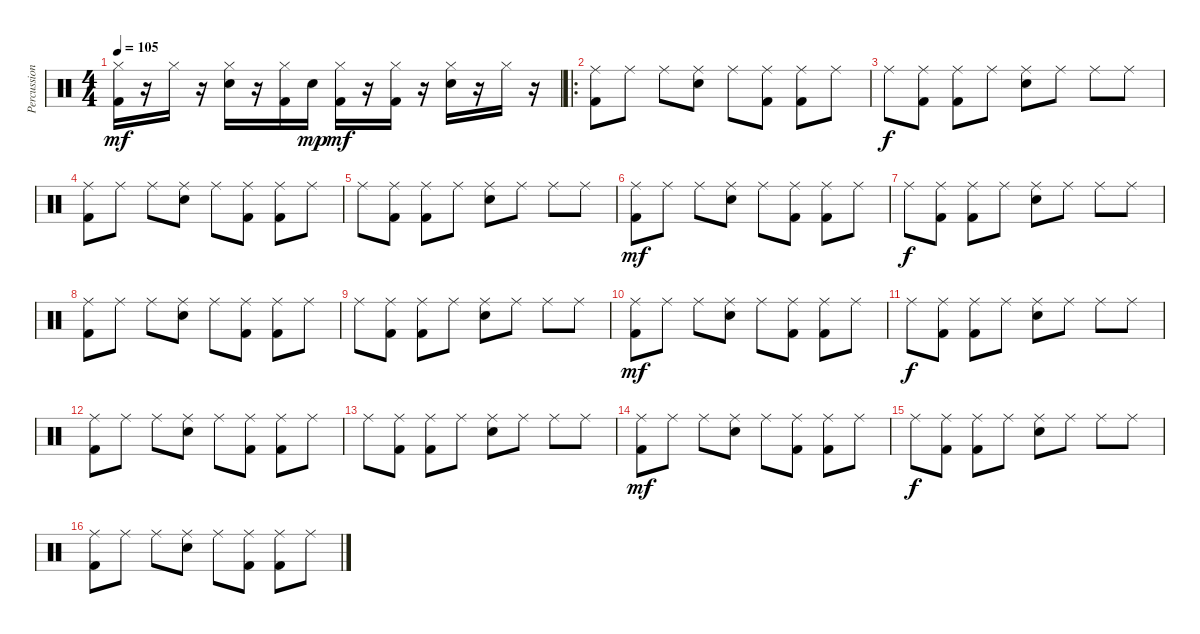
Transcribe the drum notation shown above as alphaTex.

\track ("Percussion" "Percussion") {instrument percussion}
\staff {score}
\articulation defaults
\ts (4 4)
\tempo 105
\clef neutral
\ks c
("Hi-Hat (closed)" "Kick (hit) 2").16{dy mf} r.16 "Hi-Hat (closed)".16 r.16 ("Hi-Hat (closed)" "Electric Snare (hit)").16 r.16 ("Hi-Hat (closed)" "Kick (hit) 2").16 "Electric Snare (hit)".16{dy mp} ("Hi-Hat (closed)" "Kick (hit) 2").16{dy mf} r.16 ("Hi-Hat (closed)" "Kick (hit) 2").16 r.16 ("Hi-Hat (closed)" "Electric Snare (hit)").16 r.16 "Hi-Hat (closed)".16 r.16 |
\ro
("Ride (middle)" "Kick (hit) 2").8{volume 13} "Ride (middle)".8 "Ride (middle)".8 ("Ride (middle)" "Electric Snare (hit)").8 "Ride (middle)".8 ("Ride (middle)" "Kick (hit) 2").8 ("Ride (middle)" "Kick (hit) 2").8 "Ride (middle)".8 |
"Ride (middle)".8{dy f} ("Ride (middle)" "Kick (hit) 2").8 ("Ride (middle)" "Kick (hit) 2").8 "Ride (middle)".8 ("Ride (middle)" "Electric Snare (hit)").8 "Ride (middle)".8 "Ride (middle)".8 "Ride (middle)".8 |
("Ride (middle)" "Kick (hit) 2").8 "Ride (middle)".8 "Ride (middle)".8 ("Ride (middle)" "Electric Snare (hit)").8 "Ride (middle)".8 ("Ride (middle)" "Kick (hit) 2").8 ("Ride (middle)" "Kick (hit) 2").8 "Ride (middle)".8 |
"Ride (middle)".8 ("Ride (middle)" "Kick (hit) 2").8 ("Ride (middle)" "Kick (hit) 2").8 "Ride (middle)".8 ("Ride (middle)" "Electric Snare (hit)").8 "Ride (middle)".8 "Ride (middle)".8 "Ride (middle)".8 |
("Ride (middle)" "Kick (hit) 2").8{dy mf} "Ride (middle)".8 "Ride (middle)".8 ("Ride (middle)" "Electric Snare (hit)").8 "Ride (middle)".8 ("Ride (middle)" "Kick (hit) 2").8 ("Ride (middle)" "Kick (hit) 2").8 "Ride (middle)".8 |
"Ride (middle)".8{dy f} ("Ride (middle)" "Kick (hit) 2").8 ("Ride (middle)" "Kick (hit) 2").8 "Ride (middle)".8 ("Ride (middle)" "Electric Snare (hit)").8 "Ride (middle)".8 "Ride (middle)".8 "Ride (middle)".8 |
("Ride (middle)" "Kick (hit) 2").8 "Ride (middle)".8 "Ride (middle)".8 ("Ride (middle)" "Electric Snare (hit)").8 "Ride (middle)".8 ("Ride (middle)" "Kick (hit) 2").8 ("Ride (middle)" "Kick (hit) 2").8 "Ride (middle)".8 |
"Ride (middle)".8 ("Ride (middle)" "Kick (hit) 2").8 ("Ride (middle)" "Kick (hit) 2").8 "Ride (middle)".8 ("Ride (middle)" "Electric Snare (hit)").8 "Ride (middle)".8 "Ride (middle)".8 "Ride (middle)".8 |
("Ride (middle)" "Kick (hit) 2").8{dy mf} "Ride (middle)".8 "Ride (middle)".8 ("Ride (middle)" "Electric Snare (hit)").8 "Ride (middle)".8 ("Ride (middle)" "Kick (hit) 2").8 ("Ride (middle)" "Kick (hit) 2").8 "Ride (middle)".8 |
"Ride (middle)".8{dy f} ("Ride (middle)" "Kick (hit) 2").8 ("Ride (middle)" "Kick (hit) 2").8 "Ride (middle)".8 ("Ride (middle)" "Electric Snare (hit)").8 "Ride (middle)".8 "Ride (middle)".8 "Ride (middle)".8 |
("Ride (middle)" "Kick (hit) 2").8 "Ride (middle)".8 "Ride (middle)".8 ("Ride (middle)" "Electric Snare (hit)").8 "Ride (middle)".8 ("Ride (middle)" "Kick (hit) 2").8 ("Ride (middle)" "Kick (hit) 2").8 "Ride (middle)".8 |
"Ride (middle)".8 ("Ride (middle)" "Kick (hit) 2").8 ("Ride (middle)" "Kick (hit) 2").8 "Ride (middle)".8 ("Ride (middle)" "Electric Snare (hit)").8 "Ride (middle)".8 "Ride (middle)".8 "Ride (middle)".8 |
("Ride (middle)" "Kick (hit) 2").8{dy mf} "Ride (middle)".8 "Ride (middle)".8 ("Ride (middle)" "Electric Snare (hit)").8 "Ride (middle)".8 ("Ride (middle)" "Kick (hit) 2").8 ("Ride (middle)" "Kick (hit) 2").8 "Ride (middle)".8 |
"Ride (middle)".8{dy f} ("Ride (middle)" "Kick (hit) 2").8 ("Ride (middle)" "Kick (hit) 2").8 "Ride (middle)".8 ("Ride (middle)" "Electric Snare (hit)").8 "Ride (middle)".8 "Ride (middle)".8 "Ride (middle)".8 |
("Ride (middle)" "Kick (hit) 2").8 "Ride (middle)".8 "Ride (middle)".8 ("Ride (middle)" "Electric Snare (hit)").8 "Ride (middle)".8 ("Ride (middle)" "Kick (hit) 2").8 ("Ride (middle)" "Kick (hit) 2").8 "Ride (middle)".8
